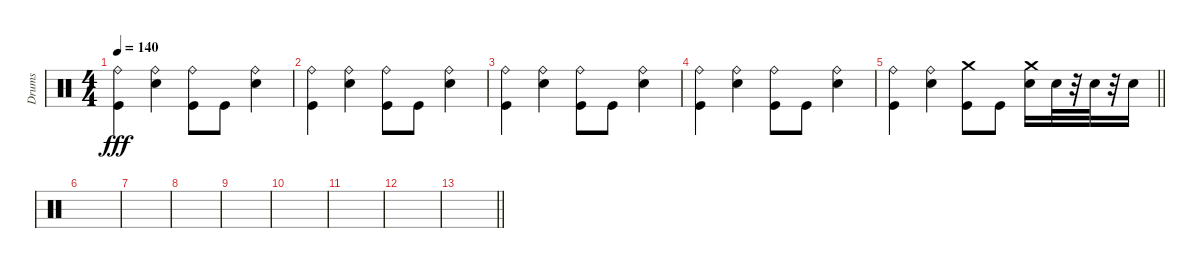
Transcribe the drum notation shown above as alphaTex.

\track ("Drums" "Drums") {instrument percussion}
\staff {score}
\articulation defaults
\ts (4 4)
\tempo 140
\clef neutral
\ks c
("Ride (bell)" "Kick (hit)").4{dy fff} ("Ride (bell)" "Electric Snare (hit)").4 ("Ride (bell)" "Kick (hit)").8 "Kick (hit)".8 ("Ride (bell)" "Electric Snare (hit)").4 |
("Ride (bell)" "Kick (hit)").4 ("Ride (bell)" "Electric Snare (hit)").4 ("Ride (bell)" "Kick (hit)").8 "Kick (hit)".8 ("Ride (bell)" "Electric Snare (hit)").4 |
("Ride (bell)" "Kick (hit)").4 ("Ride (bell)" "Electric Snare (hit)").4 ("Ride (bell)" "Kick (hit)").8 "Kick (hit)".8 ("Ride (bell)" "Electric Snare (hit)").4 |
("Ride (bell)" "Kick (hit)").4 ("Ride (bell)" "Electric Snare (hit)").4 ("Ride (bell)" "Kick (hit)").8 "Kick (hit)".8 ("Ride (bell)" "Electric Snare (hit)").4 |
\barLineRight lightlight
("Ride (bell)" "Kick (hit)").4 ("Ride (bell)" "Electric Snare (hit)").4 ("Crash medium (hit)" "Kick (hit)").8 "Kick (hit)".8 ("Crash medium (hit)" "Electric Snare (hit)").16 "Electric Snare (hit)".32 r.32 "Electric Snare (hit)".32 r.32 "Electric Snare (hit)".16 |
|
|
|
|
|
|
|
\barLineRight lightlight
